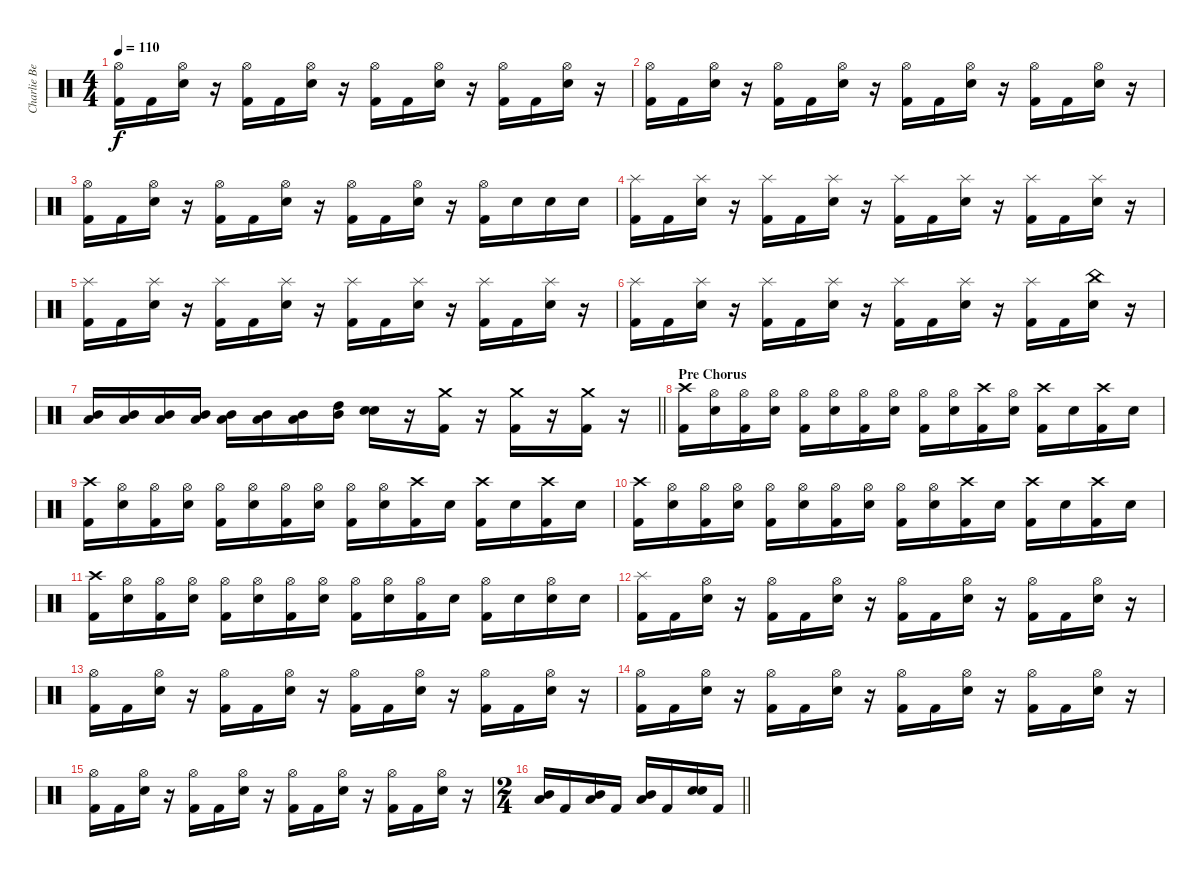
\track ("Charlie Benante" "Charlie Be") {instrument percussion}
\staff {score}
\articulation defaults
\ts (4 4)
\tempo 110
\clef neutral
\ks c
("Hi-Hat (open)" "Kick (hit) 2").16{dy f} "Kick (hit) 2".16 ("Hi-Hat (open)" "Electric Snare (hit)").16 r.16 ("Hi-Hat (open)" "Kick (hit) 2").16 "Kick (hit) 2".16 ("Hi-Hat (open)" "Electric Snare (hit)").16 r.16 ("Hi-Hat (open)" "Kick (hit) 2").16 "Kick (hit) 2".16 ("Hi-Hat (open)" "Electric Snare (hit)").16 r.16 ("Hi-Hat (open)" "Kick (hit) 2").16 "Kick (hit) 2".16 ("Hi-Hat (open)" "Electric Snare (hit)").16 r.16 |
("Hi-Hat (open)" "Kick (hit) 2").16 "Kick (hit) 2".16 ("Hi-Hat (open)" "Electric Snare (hit)").16 r.16 ("Hi-Hat (open)" "Kick (hit) 2").16 "Kick (hit) 2".16 ("Hi-Hat (open)" "Electric Snare (hit)").16 r.16 ("Hi-Hat (open)" "Kick (hit) 2").16 "Kick (hit) 2".16 ("Hi-Hat (open)" "Electric Snare (hit)").16 r.16 ("Hi-Hat (open)" "Kick (hit) 2").16 "Kick (hit) 2".16 ("Hi-Hat (open)" "Electric Snare (hit)").16 r.16 |
("Hi-Hat (open)" "Kick (hit) 2").16 "Kick (hit) 2".16 ("Hi-Hat (open)" "Electric Snare (hit)").16 r.16 ("Hi-Hat (open)" "Kick (hit) 2").16 "Kick (hit) 2".16 ("Hi-Hat (open)" "Electric Snare (hit)").16 r.16 ("Hi-Hat (open)" "Kick (hit) 2").16 "Kick (hit) 2".16 ("Hi-Hat (open)" "Electric Snare (hit)").16 r.16 ("Hi-Hat (open)" "Kick (hit) 2").16 "Electric Snare (hit)".16 "Snare (hit) 2".16 "Electric Snare (hit)".16 |
("Splash (hit)" "Kick (hit) 2").16 "Kick (hit) 2".16 ("Splash (hit)" "Electric Snare (hit)").16 r.16 ("Splash (hit)" "Kick (hit) 2").16 "Kick (hit) 2".16 ("Splash (hit)" "Electric Snare (hit)").16 r.16 ("Splash (hit)" "Kick (hit) 2").16 "Kick (hit) 2".16 ("Splash (hit)" "Electric Snare (hit)").16 r.16 ("Splash (hit)" "Kick (hit) 2").16 "Kick (hit) 2".16 ("Splash (hit)" "Electric Snare (hit)").16 r.16 |
("Splash (hit)" "Kick (hit) 2").16 "Kick (hit) 2".16 ("Splash (hit)" "Electric Snare (hit)").16 r.16 ("Splash (hit)" "Kick (hit) 2").16 "Kick (hit) 2".16 ("Splash (hit)" "Electric Snare (hit)").16 r.16 ("Splash (hit)" "Kick (hit) 2").16 "Kick (hit) 2".16 ("Splash (hit)" "Electric Snare (hit)").16 r.16 ("Splash (hit)" "Kick (hit) 2").16 "Kick (hit) 2".16 ("Splash (hit)" "Electric Snare (hit)").16 r.16 |
("Splash (hit)" "Kick (hit) 2").16 "Kick (hit) 2".16 ("Splash (hit)" "Electric Snare (hit)").16 r.16 ("Splash (hit)" "Kick (hit) 2").16 "Kick (hit) 2".16 ("Splash (hit)" "Electric Snare (hit)").16 r.16 ("Splash (hit)" "Kick (hit) 2").16 "Kick (hit) 2".16 ("Splash (hit)" "Electric Snare (hit)").16 r.16 ("Splash (hit)" "Kick (hit) 2").16 "Kick (hit) 2".16 ("China (hit)" "Electric Snare (hit)").16 r.16 |
\barLineRight lightlight
("Low Tom (hit)" "Mid Tom (hit)").16 ("Low Tom (hit)" "Mid Tom (hit)").16 ("Low Tom (hit)" "Mid Tom (hit)").16 ("Low Tom (hit)" "Mid Tom (hit)").16 ("Low Tom (hit)" "Mid Tom (hit)").16 ("Low Tom (hit)" "Mid Tom (hit)").16 ("Low Tom (hit)" "Mid Tom (hit)").16 ("Mid Tom (hit)" "High Tom (hit)").16 ("Electric Snare (hit)" "Snare (hit) 2").16 r.16 ("Crash medium (hit)" "Kick (hit) 2").16 r.16 ("Crash medium (hit)" "Kick (hit) 2").16 r.16 ("Crash medium (hit)" "Kick (hit) 2").16 r.16 |
\section ("" "Pre Chorus")
("Crash high (hit)" "Kick (hit) 2").16 ("Hi-Hat (open)" "Electric Snare (hit)").16 ("Hi-Hat (open)" "Kick (hit) 2").16 ("Hi-Hat (open)" "Electric Snare (hit)").16 ("Hi-Hat (open)" "Kick (hit) 2").16 ("Hi-Hat (open)" "Electric Snare (hit)").16 ("Hi-Hat (open)" "Kick (hit) 2").16 ("Hi-Hat (open)" "Electric Snare (hit)").16 ("Hi-Hat (open)" "Kick (hit) 2").16 ("Hi-Hat (open)" "Electric Snare (hit)").16 ("Crash high (hit)" "Kick (hit) 2").16 ("Hi-Hat (open)" "Electric Snare (hit)").16 ("Crash high (hit)" "Kick (hit) 2").16 "Electric Snare (hit)".16 ("Crash high (hit)" "Kick (hit) 2").16 "Electric Snare (hit)".16 |
("Crash high (hit)" "Kick (hit) 2").16 ("Hi-Hat (open)" "Electric Snare (hit)").16 ("Hi-Hat (open)" "Kick (hit) 2").16 ("Hi-Hat (open)" "Electric Snare (hit)").16 ("Hi-Hat (open)" "Kick (hit) 2").16 ("Hi-Hat (open)" "Electric Snare (hit)").16 ("Hi-Hat (open)" "Kick (hit) 2").16 ("Hi-Hat (open)" "Electric Snare (hit)").16 ("Hi-Hat (open)" "Kick (hit) 2").16 ("Hi-Hat (open)" "Electric Snare (hit)").16 ("Crash high (hit)" "Kick (hit) 2").16 "Electric Snare (hit)".16 ("Crash high (hit)" "Kick (hit) 2").16 "Electric Snare (hit)".16 ("Crash high (hit)" "Kick (hit) 2").16 "Electric Snare (hit)".16 |
("Crash high (hit)" "Kick (hit) 2").16 ("Hi-Hat (open)" "Electric Snare (hit)").16 ("Hi-Hat (open)" "Kick (hit) 2").16 ("Hi-Hat (open)" "Electric Snare (hit)").16 ("Hi-Hat (open)" "Kick (hit) 2").16 ("Hi-Hat (open)" "Electric Snare (hit)").16 ("Hi-Hat (open)" "Kick (hit) 2").16 ("Hi-Hat (open)" "Electric Snare (hit)").16 ("Hi-Hat (open)" "Kick (hit) 2").16 ("Hi-Hat (open)" "Electric Snare (hit)").16 ("Crash high (hit)" "Kick (hit) 2").16 "Electric Snare (hit)".16 ("Crash high (hit)" "Kick (hit) 2").16 "Electric Snare (hit)".16 ("Crash high (hit)" "Kick (hit) 2").16 "Electric Snare (hit)".16 |
("Crash high (hit)" "Kick (hit) 2").16 ("Hi-Hat (open)" "Electric Snare (hit)").16 ("Hi-Hat (open)" "Kick (hit) 2").16 ("Hi-Hat (open)" "Electric Snare (hit)").16 ("Hi-Hat (open)" "Kick (hit) 2").16 ("Hi-Hat (open)" "Electric Snare (hit)").16 ("Hi-Hat (open)" "Kick (hit) 2").16 ("Hi-Hat (open)" "Electric Snare (hit)").16 ("Hi-Hat (open)" "Kick (hit) 2").16 ("Hi-Hat (open)" "Electric Snare (hit)").16 ("Hi-Hat (open)" "Kick (hit) 2").16 "Electric Snare (hit)".16 ("Hi-Hat (open)" "Kick (hit) 2").16 "Electric Snare (hit)".16 ("Hi-Hat (open)" "Electric Snare (hit)").16 "Electric Snare (hit)".16 |
("Splash (hit)" "Kick (hit) 2").16 "Kick (hit) 2".16 ("Hi-Hat (open)" "Electric Snare (hit)").16 r.16 ("Hi-Hat (open)" "Kick (hit) 2").16 "Kick (hit) 2".16 ("Hi-Hat (open)" "Electric Snare (hit)").16 r.16 ("Hi-Hat (open)" "Kick (hit) 2").16 "Kick (hit) 2".16 ("Hi-Hat (open)" "Electric Snare (hit)").16 r.16 ("Hi-Hat (open)" "Kick (hit) 2").16 "Kick (hit) 2".16 ("Hi-Hat (open)" "Electric Snare (hit)").16 r.16 |
("Hi-Hat (open)" "Kick (hit) 2").16 "Kick (hit) 2".16 ("Hi-Hat (open)" "Electric Snare (hit)").16 r.16 ("Hi-Hat (open)" "Kick (hit) 2").16 "Kick (hit) 2".16 ("Hi-Hat (open)" "Electric Snare (hit)").16 r.16 ("Hi-Hat (open)" "Kick (hit) 2").16 "Kick (hit) 2".16 ("Hi-Hat (open)" "Electric Snare (hit)").16 r.16 ("Hi-Hat (open)" "Kick (hit) 2").16 "Kick (hit) 2".16 ("Hi-Hat (open)" "Electric Snare (hit)").16 r.16 |
("Hi-Hat (open)" "Kick (hit) 2").16 "Kick (hit) 2".16 ("Hi-Hat (open)" "Electric Snare (hit)").16 r.16 ("Hi-Hat (open)" "Kick (hit) 2").16 "Kick (hit) 2".16 ("Hi-Hat (open)" "Electric Snare (hit)").16 r.16 ("Hi-Hat (open)" "Kick (hit) 2").16 "Kick (hit) 2".16 ("Hi-Hat (open)" "Electric Snare (hit)").16 r.16 ("Hi-Hat (open)" "Kick (hit) 2").16 "Kick (hit) 2".16 ("Hi-Hat (open)" "Electric Snare (hit)").16 r.16 |
("Hi-Hat (open)" "Kick (hit) 2").16 "Kick (hit) 2".16 ("Hi-Hat (open)" "Electric Snare (hit)").16 r.16 ("Hi-Hat (open)" "Kick (hit) 2").16 "Kick (hit) 2".16 ("Hi-Hat (open)" "Electric Snare (hit)").16 r.16 ("Hi-Hat (open)" "Kick (hit) 2").16 "Kick (hit) 2".16 ("Hi-Hat (open)" "Electric Snare (hit)").16 r.16 ("Hi-Hat (open)" "Kick (hit) 2").16 "Kick (hit) 2".16 ("Hi-Hat (open)" "Electric Snare (hit)").16 r.16 |
\ts (2 4)
\barLineRight lightlight
("Low Tom (hit)" "Mid Tom (hit)").16 "Kick (hit) 2".16 ("Low Tom (hit)" "Mid Tom (hit)").16 "Kick (hit) 2".16 ("Low Tom (hit)" "Mid Tom (hit)").16 "Kick (hit) 2".16 ("Snare (hit) 2" "Electric Snare (hit)").16 "Kick (hit) 2".16
